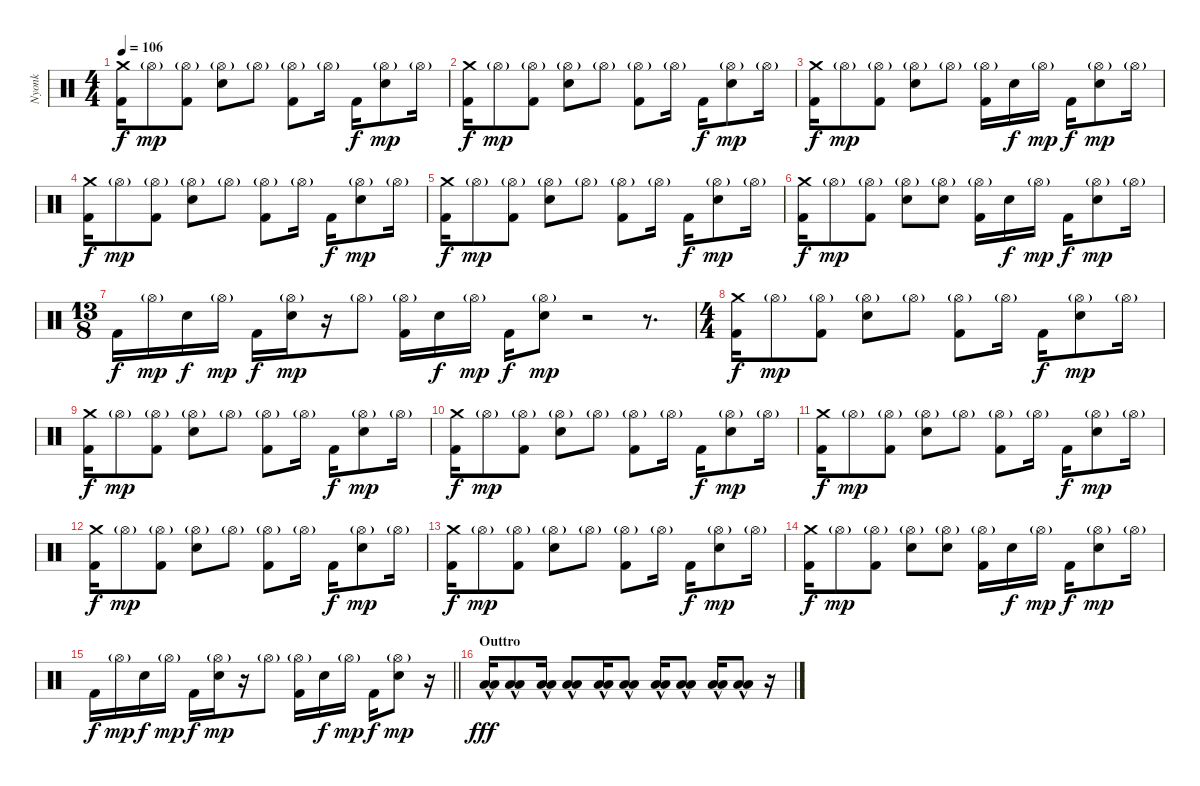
\track ("Nyonk" "Nyonk") {instrument percussion}
\staff {score}
\articulation defaults
\ts (4 4)
\tempo 106
\clef neutral
\ks c
("Crash medium (hit)" "Kick (hit) 2").16{dy f} "Hi-Hat (open)"{g}.8{dy mp} ("Hi-Hat (open)"{g} "Kick (hit) 2").8 ("Hi-Hat (open)"{g} "Electric Snare (hit)").8 "Hi-Hat (open)"{g}.8 ("Hi-Hat (open)"{g} "Kick (hit) 2").8 "Hi-Hat (open)"{g}.16 "Kick (hit) 2".16{dy f} ("Hi-Hat (open)"{g} "Electric Snare (hit)").8{dy mp} "Hi-Hat (open)"{g}.16 |
("Crash medium (hit)" "Kick (hit) 2").16{dy f} "Hi-Hat (open)"{g}.8{dy mp} ("Hi-Hat (open)"{g} "Kick (hit) 2").8 ("Hi-Hat (open)"{g} "Electric Snare (hit)").8 "Hi-Hat (open)"{g}.8 ("Hi-Hat (open)"{g} "Kick (hit) 2").8 "Hi-Hat (open)"{g}.16 "Kick (hit) 2".16{dy f} ("Hi-Hat (open)"{g} "Electric Snare (hit)").8{dy mp} "Hi-Hat (open)"{g}.16 |
("Crash medium (hit)" "Kick (hit) 2").16{dy f} "Hi-Hat (open)"{g}.8{dy mp} ("Hi-Hat (open)"{g} "Kick (hit) 2").8 ("Hi-Hat (open)"{g} "Electric Snare (hit)").8 "Hi-Hat (open)"{g}.8 ("Hi-Hat (open)"{g} "Kick (hit) 2").16 "Electric Snare (hit)".16{dy f} "Hi-Hat (open)"{g}.16{dy mp} "Kick (hit) 2".16{dy f} ("Hi-Hat (open)"{g} "Electric Snare (hit)").8{dy mp} "Hi-Hat (open)"{g}.16 |
("Crash medium (hit)" "Kick (hit) 2").16{dy f} "Hi-Hat (open)"{g}.8{dy mp} ("Hi-Hat (open)"{g} "Kick (hit) 2").8 ("Hi-Hat (open)"{g} "Electric Snare (hit)").8 "Hi-Hat (open)"{g}.8 ("Hi-Hat (open)"{g} "Kick (hit) 2").8 "Hi-Hat (open)"{g}.16 "Kick (hit) 2".16{dy f} ("Hi-Hat (open)"{g} "Electric Snare (hit)").8{dy mp} "Hi-Hat (open)"{g}.16 |
("Crash medium (hit)" "Kick (hit) 2").16{dy f} "Hi-Hat (open)"{g}.8{dy mp} ("Hi-Hat (open)"{g} "Kick (hit) 2").8 ("Hi-Hat (open)"{g} "Electric Snare (hit)").8 "Hi-Hat (open)"{g}.8 ("Hi-Hat (open)"{g} "Kick (hit) 2").8 "Hi-Hat (open)"{g}.16 "Kick (hit) 2".16{dy f} ("Hi-Hat (open)"{g} "Electric Snare (hit)").8{dy mp} "Hi-Hat (open)"{g}.16 |
("Crash medium (hit)" "Kick (hit) 2").16{dy f} "Hi-Hat (open)"{g}.8{dy mp} ("Hi-Hat (open)"{g} "Kick (hit) 2").8 ("Hi-Hat (open)"{g} "Electric Snare (hit)").8 ("Hi-Hat (open)"{g} "Electric Snare (hit)").8 ("Hi-Hat (open)"{g} "Kick (hit) 2").16 "Electric Snare (hit)".16{dy f} "Hi-Hat (open)"{g}.16{dy mp} "Kick (hit) 2".16{dy f} ("Hi-Hat (open)"{g} "Electric Snare (hit)").8{dy mp} "Hi-Hat (open)"{g}.16 |
\ts (13 8)
"Kick (hit) 2".16{dy f} "Hi-Hat (open)"{g}.16{dy mp} "Electric Snare (hit)".16{dy f} "Hi-Hat (open)"{g}.16{dy mp} "Kick (hit) 2".16{dy f} ("Hi-Hat (open)"{g} "Electric Snare (hit)").16{dy mp} r.16 "Hi-Hat (open)"{g}.8 ("Hi-Hat (open)"{g} "Kick (hit) 2").16 "Electric Snare (hit)".16{dy f} "Hi-Hat (open)"{g}.16{dy mp} "Kick (hit) 2".16{dy f} ("Hi-Hat (open)"{g} "Electric Snare (hit)").8{dy mp} r.2 r.8{d} |
\ts (4 4)
("Crash medium (hit)" "Kick (hit) 2").16{dy f} "Hi-Hat (open)"{g}.8{dy mp} ("Hi-Hat (open)"{g} "Kick (hit) 2").8 ("Hi-Hat (open)"{g} "Electric Snare (hit)").8 "Hi-Hat (open)"{g}.8 ("Hi-Hat (open)"{g} "Kick (hit) 2").8 "Hi-Hat (open)"{g}.16 "Kick (hit) 2".16{dy f} ("Hi-Hat (open)"{g} "Electric Snare (hit)").8{dy mp} "Hi-Hat (open)"{g}.16 |
("Crash medium (hit)" "Kick (hit) 2").16{dy f} "Hi-Hat (open)"{g}.8{dy mp} ("Hi-Hat (open)"{g} "Kick (hit) 2").8 ("Hi-Hat (open)"{g} "Electric Snare (hit)").8 "Hi-Hat (open)"{g}.8 ("Hi-Hat (open)"{g} "Kick (hit) 2").8 "Hi-Hat (open)"{g}.16 "Kick (hit) 2".16{dy f} ("Hi-Hat (open)"{g} "Electric Snare (hit)").8{dy mp} "Hi-Hat (open)"{g}.16 |
("Crash medium (hit)" "Kick (hit) 2").16{dy f} "Hi-Hat (open)"{g}.8{dy mp} ("Hi-Hat (open)"{g} "Kick (hit) 2").8 ("Hi-Hat (open)"{g} "Electric Snare (hit)").8 "Hi-Hat (open)"{g}.8 ("Hi-Hat (open)"{g} "Kick (hit) 2").8 "Hi-Hat (open)"{g}.16 "Kick (hit) 2".16{dy f} ("Hi-Hat (open)"{g} "Electric Snare (hit)").8{dy mp} "Hi-Hat (open)"{g}.16 |
("Crash medium (hit)" "Kick (hit) 2").16{dy f} "Hi-Hat (open)"{g}.8{dy mp} ("Hi-Hat (open)"{g} "Kick (hit) 2").8 ("Hi-Hat (open)"{g} "Electric Snare (hit)").8 "Hi-Hat (open)"{g}.8 ("Hi-Hat (open)"{g} "Kick (hit) 2").8 "Hi-Hat (open)"{g}.16 "Kick (hit) 2".16{dy f} ("Hi-Hat (open)"{g} "Electric Snare (hit)").8{dy mp} "Hi-Hat (open)"{g}.16 |
("Crash medium (hit)" "Kick (hit) 2").16{dy f} "Hi-Hat (open)"{g}.8{dy mp} ("Hi-Hat (open)"{g} "Kick (hit) 2").8 ("Hi-Hat (open)"{g} "Electric Snare (hit)").8 "Hi-Hat (open)"{g}.8 ("Hi-Hat (open)"{g} "Kick (hit) 2").8 "Hi-Hat (open)"{g}.16 "Kick (hit) 2".16{dy f} ("Hi-Hat (open)"{g} "Electric Snare (hit)").8{dy mp} "Hi-Hat (open)"{g}.16 |
("Crash medium (hit)" "Kick (hit) 2").16{dy f} "Hi-Hat (open)"{g}.8{dy mp} ("Hi-Hat (open)"{g} "Kick (hit) 2").8 ("Hi-Hat (open)"{g} "Electric Snare (hit)").8 "Hi-Hat (open)"{g}.8 ("Hi-Hat (open)"{g} "Kick (hit) 2").8 "Hi-Hat (open)"{g}.16 "Kick (hit) 2".16{dy f} ("Hi-Hat (open)"{g} "Electric Snare (hit)").8{dy mp} "Hi-Hat (open)"{g}.16 |
("Crash medium (hit)" "Kick (hit) 2").16{dy f} "Hi-Hat (open)"{g}.8{dy mp} ("Hi-Hat (open)"{g} "Kick (hit) 2").8 ("Hi-Hat (open)"{g} "Electric Snare (hit)").8 ("Hi-Hat (open)"{g} "Electric Snare (hit)").8 ("Hi-Hat (open)"{g} "Kick (hit) 2").16 "Electric Snare (hit)".16{dy f} "Hi-Hat (open)"{g}.16{dy mp} "Kick (hit) 2".16{dy f} ("Hi-Hat (open)"{g} "Electric Snare (hit)").8{dy mp} "Hi-Hat (open)"{g}.16 |
\barLineRight lightlight "Kick (hit) 2".16{dy f} "Hi-Hat (open)"{g}.16{dy mp} "Electric Snare (hit)".16{dy f} "Hi-Hat (open)"{g}.16{dy mp} "Kick (hit) 2".16{dy f}
("Hi-Hat (open)"{g} "Electric Snare (hit)").16{dy mp} r.16 "Hi-Hat (open)"{g}.8 ("Hi-Hat (open)"{g} "Kick (hit) 2").16 "Electric Snare (hit)".16{dy f} "Hi-Hat (open)"{g}.16{dy mp} "Kick (hit) 2".16{dy f} ("Hi-Hat (open)"{g} "Electric Snare (hit)").8{dy mp} r.16 |
\section ("" "Outtro")
("Low Floor Tom (hit)"{hac} "Low Floor Tom (hit)"{hac}).16{dy fff} ("Low Floor Tom (hit)"{hac} "Low Floor Tom (hit)"{hac}).8 ("Low Floor Tom (hit)"{hac} "Low Floor Tom (hit)"{hac}).16 ("Low Floor Tom (hit)"{hac} "Low Floor Tom (hit)"{hac}).8 ("Low Floor Tom (hit)"{hac} "Low Floor Tom (hit)"{hac}).16 ("Low Floor Tom (hit)"{hac} "Low Floor Tom (hit)"{hac}).8 ("Low Floor Tom (hit)"{hac} "Low Floor Tom (hit)"{hac}).16 ("Low Floor Tom (hit)"{hac} "Low Floor Tom (hit)"{hac}).8 ("Low Floor Tom (hit)"{hac} "Low Floor Tom (hit)"{hac}).16 ("Low Floor Tom (hit)"{hac} "Low Floor Tom (hit)"{hac}).8 r.16
